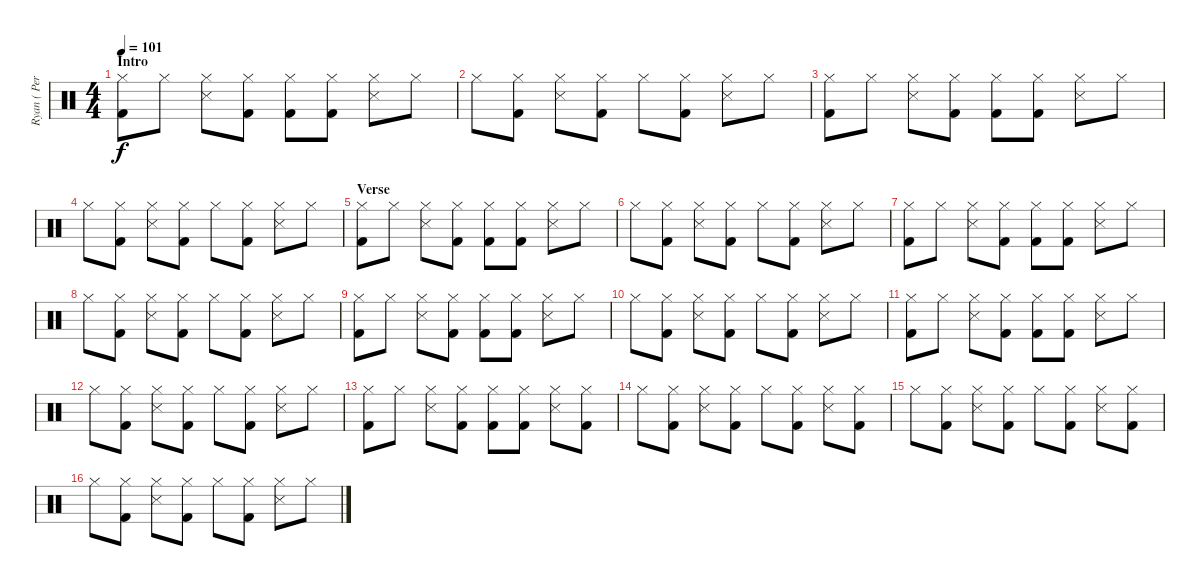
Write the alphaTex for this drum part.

\track ("Ryan ( Percussion )" "Ryan ( Per") {instrument percussion}
\staff {score}
\articulation defaults
\ts (4 4)
\section ("" "Intro")
\tempo 101
\clef neutral
\ks c
("Hi-Hat (closed)" "Kick (hit) 2").8{dy f} "Hi-Hat (closed)".8 ("Hi-Hat (closed)" "Snare (side stick) 3").8 ("Hi-Hat (closed)" "Kick (hit) 2").8 ("Hi-Hat (closed)" "Kick (hit) 2").8 ("Hi-Hat (closed)" "Kick (hit) 2").8 ("Hi-Hat (closed)" "Snare (side stick) 3").8 "Hi-Hat (closed)".8 |
"Hi-Hat (closed)".8 ("Hi-Hat (closed)" "Kick (hit) 2").8 ("Hi-Hat (closed)" "Snare (side stick) 3").8 ("Hi-Hat (closed)" "Kick (hit) 2").8 "Hi-Hat (closed)".8 ("Hi-Hat (closed)" "Kick (hit) 2").8 ("Hi-Hat (closed)" "Snare (side stick) 3").8 "Hi-Hat (closed)".8 |
("Hi-Hat (closed)" "Kick (hit) 2").8 "Hi-Hat (closed)".8 ("Hi-Hat (closed)" "Snare (side stick) 3").8 ("Hi-Hat (closed)" "Kick (hit) 2").8 ("Hi-Hat (closed)" "Kick (hit) 2").8 ("Hi-Hat (closed)" "Kick (hit) 2").8 ("Hi-Hat (closed)" "Snare (side stick) 3").8 "Hi-Hat (closed)".8 |
"Hi-Hat (closed)".8 ("Hi-Hat (closed)" "Kick (hit) 2").8 ("Hi-Hat (closed)" "Snare (side stick) 3").8 ("Hi-Hat (closed)" "Kick (hit) 2").8 "Hi-Hat (closed)".8 ("Hi-Hat (closed)" "Kick (hit) 2").8 ("Hi-Hat (closed)" "Snare (side stick) 3").8 "Hi-Hat (closed)".8 |
\section ("" "Verse")
("Hi-Hat (closed)" "Kick (hit) 2").8 "Hi-Hat (closed)".8 ("Hi-Hat (closed)" "Snare (side stick) 3").8 ("Hi-Hat (closed)" "Kick (hit) 2").8 ("Hi-Hat (closed)" "Kick (hit) 2").8 ("Hi-Hat (closed)" "Kick (hit) 2").8 ("Hi-Hat (closed)" "Snare (side stick) 3").8 "Hi-Hat (closed)".8 |
"Hi-Hat (closed)".8 ("Hi-Hat (closed)" "Kick (hit) 2").8 ("Hi-Hat (closed)" "Snare (side stick) 3").8 ("Hi-Hat (closed)" "Kick (hit) 2").8 "Hi-Hat (closed)".8 ("Hi-Hat (closed)" "Kick (hit) 2").8 ("Hi-Hat (closed)" "Snare (side stick) 3").8 "Hi-Hat (closed)".8 |
("Hi-Hat (closed)" "Kick (hit) 2").8 "Hi-Hat (closed)".8 ("Hi-Hat (closed)" "Snare (side stick) 3").8 ("Hi-Hat (closed)" "Kick (hit) 2").8 ("Hi-Hat (closed)" "Kick (hit) 2").8 ("Hi-Hat (closed)" "Kick (hit) 2").8 ("Hi-Hat (closed)" "Snare (side stick) 3").8 "Hi-Hat (closed)".8 |
"Hi-Hat (closed)".8 ("Hi-Hat (closed)" "Kick (hit) 2").8 ("Hi-Hat (closed)" "Snare (side stick) 3").8 ("Hi-Hat (closed)" "Kick (hit) 2").8 "Hi-Hat (closed)".8 ("Hi-Hat (closed)" "Kick (hit) 2").8 ("Hi-Hat (closed)" "Snare (side stick) 3").8 "Hi-Hat (closed)".8 |
("Hi-Hat (closed)" "Kick (hit) 2").8 "Hi-Hat (closed)".8 ("Hi-Hat (closed)" "Snare (side stick) 3").8 ("Hi-Hat (closed)" "Kick (hit) 2").8 ("Hi-Hat (closed)" "Kick (hit) 2").8 ("Hi-Hat (closed)" "Kick (hit) 2").8 ("Hi-Hat (closed)" "Snare (side stick) 3").8 "Hi-Hat (closed)".8 |
"Hi-Hat (closed)".8 ("Hi-Hat (closed)" "Kick (hit) 2").8 ("Hi-Hat (closed)" "Snare (side stick) 3").8 ("Hi-Hat (closed)" "Kick (hit) 2").8 "Hi-Hat (closed)".8 ("Hi-Hat (closed)" "Kick (hit) 2").8 ("Hi-Hat (closed)" "Snare (side stick) 3").8 "Hi-Hat (closed)".8 |
("Hi-Hat (closed)" "Kick (hit) 2").8 "Hi-Hat (closed)".8 ("Hi-Hat (closed)" "Snare (side stick) 3").8 ("Hi-Hat (closed)" "Kick (hit) 2").8 ("Hi-Hat (closed)" "Kick (hit) 2").8 ("Hi-Hat (closed)" "Kick (hit) 2").8 ("Hi-Hat (closed)" "Snare (side stick) 3").8 "Hi-Hat (closed)".8 |
"Hi-Hat (closed)".8 ("Hi-Hat (closed)" "Kick (hit) 2").8 ("Hi-Hat (closed)" "Snare (side stick) 3").8 ("Hi-Hat (closed)" "Kick (hit) 2").8 "Hi-Hat (closed)".8 ("Hi-Hat (closed)" "Kick (hit) 2").8 ("Hi-Hat (closed)" "Snare (side stick) 3").8 "Hi-Hat (closed)".8 |
("Hi-Hat (closed)" "Kick (hit) 2").8 "Hi-Hat (closed)".8 ("Hi-Hat (closed)" "Snare (side stick) 3").8 ("Hi-Hat (closed)" "Kick (hit) 2").8 ("Hi-Hat (closed)" "Kick (hit) 2").8 ("Hi-Hat (closed)" "Kick (hit) 2").8 ("Hi-Hat (closed)" "Snare (side stick) 3").8 ("Hi-Hat (closed)" "Kick (hit) 2").8 |
"Hi-Hat (closed)".8 ("Hi-Hat (closed)" "Kick (hit) 2").8 ("Hi-Hat (closed)" "Snare (side stick) 3").8 ("Hi-Hat (closed)" "Kick (hit) 2").8 "Hi-Hat (closed)".8 ("Hi-Hat (closed)" "Kick (hit) 2").8 ("Hi-Hat (closed)" "Snare (side stick) 3").8 ("Hi-Hat (closed)" "Kick (hit) 2").8 |
"Hi-Hat (closed)".8 ("Hi-Hat (closed)" "Kick (hit) 2").8 ("Hi-Hat (closed)" "Snare (side stick) 3").8 ("Hi-Hat (closed)" "Kick (hit) 2").8 "Hi-Hat (closed)".8 ("Hi-Hat (closed)" "Kick (hit) 2").8 ("Hi-Hat (closed)" "Snare (side stick) 3").8 ("Hi-Hat (closed)" "Kick (hit) 2").8 |
"Hi-Hat (closed)".8 ("Hi-Hat (closed)" "Kick (hit) 2").8 ("Hi-Hat (closed)" "Snare (side stick) 3").8 ("Hi-Hat (closed)" "Kick (hit) 2").8 "Hi-Hat (closed)".8 ("Hi-Hat (closed)" "Kick (hit) 2").8 ("Hi-Hat (closed)" "Snare (side stick) 3").8 "Hi-Hat (closed)".8
